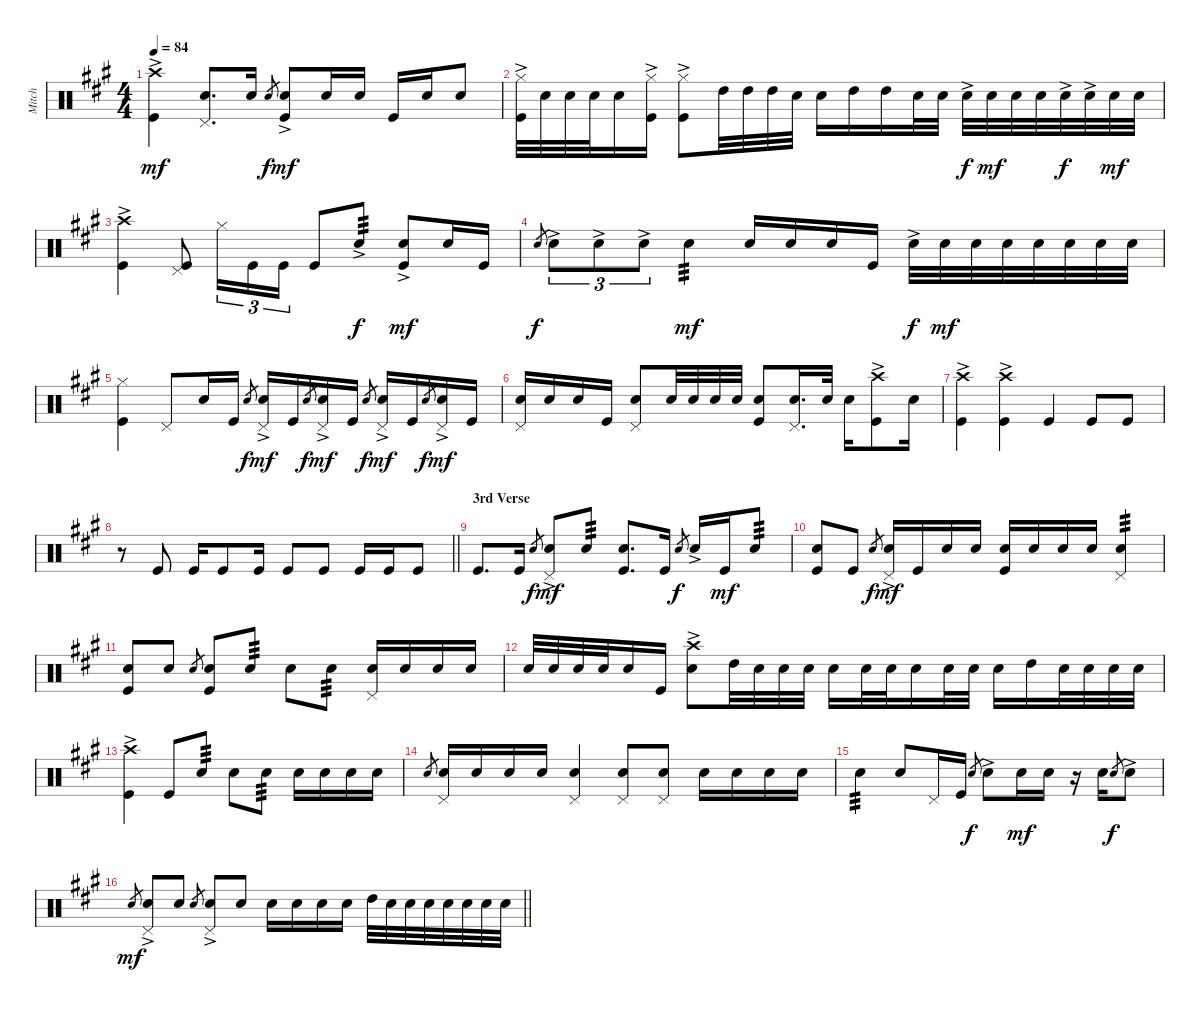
\track ("Mitch" "Mitch") {instrument percussion}
\staff {score}
\articulation defaults
\ts (4 4)
\tempo 84
\clef neutral
\ks a
("Crash high (hit)"{ac} "Kick (hit)").4{dy mf} ("Pedal Hi-Hat (hit)" "Snare (hit) 2").8{d} "Snare (hit) 2".16 "Snare (hit) 2".8{gr dy f} ("Snare (hit) 2"{ac} "Kick (hit)").8{dy mf} "Snare (hit) 2".16 "Snare (hit) 2".16 "Kick (hit)".16 "Snare (hit) 2".16 "Snare (hit) 2".8 |
("Hi-Hat (closed)"{ac} "Kick (hit)").32 "Snare (hit) 2".32 "Snare (hit) 2".32 "Snare (hit) 2".32 "Snare (hit) 2".16 ("Hi-Hat (closed)"{ac} "Kick (hit)").16 ("Hi-Hat (closed)"{ac} "Kick (hit)").8 "High Tom (hit)".32 "High Tom (hit)".32 "High Tom (hit)".32 "Snare (hit) 2".32 "Snare (hit) 2".16 "High Tom (hit)".16 "High Tom (hit)".16 "Snare (hit) 2".32 "Snare (hit) 2".32 "Snare (hit) 2"{ac}.32{dy f} "Snare (hit) 2".32{dy mf} "Snare (hit) 2".32 "Snare (hit) 2".32 "Snare (hit) 2"{ac}.32{dy f} "Snare (hit) 2"{ac}.32 "Snare (hit) 2".32{dy mf} "Snare (hit) 2".32 |
("Crash high (hit)"{ac} "Kick (hit)").4 ("Kick (hit)" "Pedal Hi-Hat (hit)").8 "Hi-Hat (closed)".16{tu (3 2)} "Kick (hit)".16{tu (3 2)} "Kick (hit)".16{tu (3 2)} "Kick (hit)".8 "Snare (hit) 2"{ac}.8{tp 3 dy f} ("Snare (hit) 2"{ac} "Kick (hit)").8{dy mf} "Snare (hit) 2".16 "Kick (hit)".16 |
"Snare (hit) 2".8{gr dy f} "Snare (hit) 2"{ac}.8{tu (3 2)} "Snare (hit) 2"{ac}.8{tu (3 2)} "Snare (hit) 2"{ac}.8{tu (3 2)} "Snare (hit) 2".4{tp 3 dy mf} "Snare (hit) 2".16 "Snare (hit) 2".16 "Snare (hit) 2".16 "Kick (hit)".16 "Snare (hit) 2"{ac}.32{dy f} "Snare (hit) 2".32{dy mf} "Snare (hit) 2".32 "Snare (hit) 2".32 "Snare (hit) 2".32 "Snare (hit) 2".32 "Snare (hit) 2".32 "Snare (hit) 2".32 |
("Hi-Hat (closed)" "Kick (hit)").4 "Pedal Hi-Hat (hit)".8 "Snare (hit) 2".16 "Kick (hit)".16 "Snare (hit) 2".8{gr dy f} ("Snare (hit) 2"{ac} "Pedal Hi-Hat (hit)").16{dy mf} "Kick (hit)".16 "Snare (hit) 2".8{gr dy f} ("Snare (hit) 2"{ac} "Pedal Hi-Hat (hit)").16{dy mf} "Kick (hit)".16 "Snare (hit) 2".8{gr dy f} ("Snare (hit) 2"{ac} "Pedal Hi-Hat (hit)").16{dy mf} "Kick (hit)".16 "Snare (hit) 2".8{gr dy f} ("Snare (hit) 2"{ac} "Pedal Hi-Hat (hit)").16{dy mf} "Kick (hit)".16 |
("Snare (hit) 2" "Pedal Hi-Hat (hit)").16 "Snare (hit) 2".16 "Snare (hit) 2".16 "Kick (hit)".16 ("Snare (hit) 2" "Pedal Hi-Hat (hit)").8 "Snare (hit) 2".32 "Snare (hit) 2".32 "Snare (hit) 2".32 "Snare (hit) 2".32 ("Snare (hit) 2" "Kick (hit)").8 ("Snare (hit) 2" "Pedal Hi-Hat (hit)").16{d} "Snare (hit) 2".32 "Snare (hit) 2".16 ("Crash high (hit)"{ac} "Kick (hit)").8 "Snare (hit) 2".16 |
("Crash high (hit)"{ac} "Kick (hit)").4 ("Crash high (hit)"{ac} "Kick (hit)").4 "Kick (hit)".4 "Kick (hit)".8 "Kick (hit)".8 |
\barLineRight lightlight
r.8 "Kick (hit)".8 "Kick (hit)".16 "Kick (hit)".8 "Kick (hit)".16 "Kick (hit)".8 "Kick (hit)".8 "Kick (hit)".16 "Kick (hit)".16 "Kick (hit)".8 |
\section ("" "3rd Verse")
"Kick (hit)".8{d} "Kick (hit)".16 "Snare (hit) 2".8{gr dy f} ("Snare (hit) 2"{ac} "Pedal Hi-Hat (hit)").8{dy mf} "Snare (hit) 2".8{tp 3} ("Snare (hit) 2" "Kick (hit)").8{d} "Kick (hit)".16 "Snare (hit) 2".8{gr dy f} "Snare (hit) 2"{ac}.16 "Kick (hit)".16{dy mf} "Snare (hit) 2".8{tp 3} |
("Snare (hit) 2" "Kick (hit)").8 "Kick (hit)".8 "Snare (hit) 2".8{gr dy f} ("Snare (hit) 2"{ac} "Pedal Hi-Hat (hit)").16{dy mf} "Kick (hit)".16 "Snare (hit) 2".16 "Snare (hit) 2".16 ("Snare (hit) 2" "Kick (hit)").16 "Snare (hit) 2".16 "Snare (hit) 2".16 "Snare (hit) 2".16 ("Snare (hit) 2" "Pedal Hi-Hat (hit)").4{tp 3} |
("Snare (hit) 2" "Kick (hit)").8 "Snare (hit) 2".8 "Snare (hit) 2".8{gr} ("Snare (hit) 2" "Kick (hit)").8 "Snare (hit) 2".8{tp 3} "Snare (hit) 2".8 "Snare (hit) 2".8{tp 3} ("Snare (hit) 2" "Pedal Hi-Hat (hit)").16 "Snare (hit) 2".16 "Snare (hit) 2".16 "Snare (hit) 2".16 |
"Snare (hit) 2".32 "Snare (hit) 2".32 "Snare (hit) 2".32 "Snare (hit) 2".32 "Snare (hit) 2".16 "Kick (hit)".16 ("Crash high (hit)"{ac} "Snare (hit) 2").8 "High Tom (hit)".32 "Snare (hit) 2".32 "Snare (hit) 2".32 "Snare (hit) 2".32 "Snare (hit) 2".16 "Snare (hit) 2".32 "Snare (hit) 2".32 "Snare (hit) 2".16 "Snare (hit) 2".32 "Snare (hit) 2".32 "Snare (hit) 2".16 "High Tom (hit)".16 "Snare (hit) 2".32 "Snare (hit) 2".32 "Snare (hit) 2".32 "Snare (hit) 2".32 |
("Crash high (hit)"{ac} "Kick (hit)").4 "Kick (hit)".8 "Snare (hit) 2".8{tp 3} "Snare (hit) 2".8 "Snare (hit) 2".8{tp 3} "Snare (hit) 2".16 "Snare (hit) 2".16 "Snare (hit) 2".16 "Snare (hit) 2".16 |
"Snare (hit) 2".8{gr} ("Snare (hit) 2" "Pedal Hi-Hat (hit)").16 "Snare (hit) 2".16 "Snare (hit) 2".16 "Snare (hit) 2".16 ("Snare (hit) 2" "Pedal Hi-Hat (hit)").4 ("Snare (hit) 2" "Pedal Hi-Hat (hit)").8 ("Snare (hit) 2" "Pedal Hi-Hat (hit)").8 "Snare (hit) 2".16 "Snare (hit) 2".16 "Snare (hit) 2".16 "Snare (hit) 2".16 |
"Snare (hit) 2".4{tp 3} "Snare (hit) 2".8 "Pedal Hi-Hat (hit)".16 "Kick (hit)".16 "Snare (hit) 2".8{gr dy f} "Snare (hit) 2"{ac}.8 "Snare (hit) 2".16{dy mf} "Snare (hit) 2".16 r.16 "Snare (hit) 2".16 "Snare (hit) 2".8{gr dy f} "Snare (hit) 2"{ac}.8 |
\barLineRight lightlight "Snare (hit) 2".8{gr dy mf}
("Snare (hit) 2"{ac} "Pedal Hi-Hat (hit)").8 "Snare (hit) 2".8 "Snare (hit) 2".8{gr} ("Snare (hit) 2"{ac} "Pedal Hi-Hat (hit)").8 "Snare (hit) 2".8 "Snare (hit) 2".16 "Snare (hit) 2".16 "Snare (hit) 2".16 "Snare (hit) 2".16 "High Tom (hit)".32 "Snare (hit) 2".32 "Snare (hit) 2".32 "Snare (hit) 2".32 "Snare (hit) 2".32 "Snare (hit) 2".32 "Snare (hit) 2".32 "Snare (hit) 2".32
